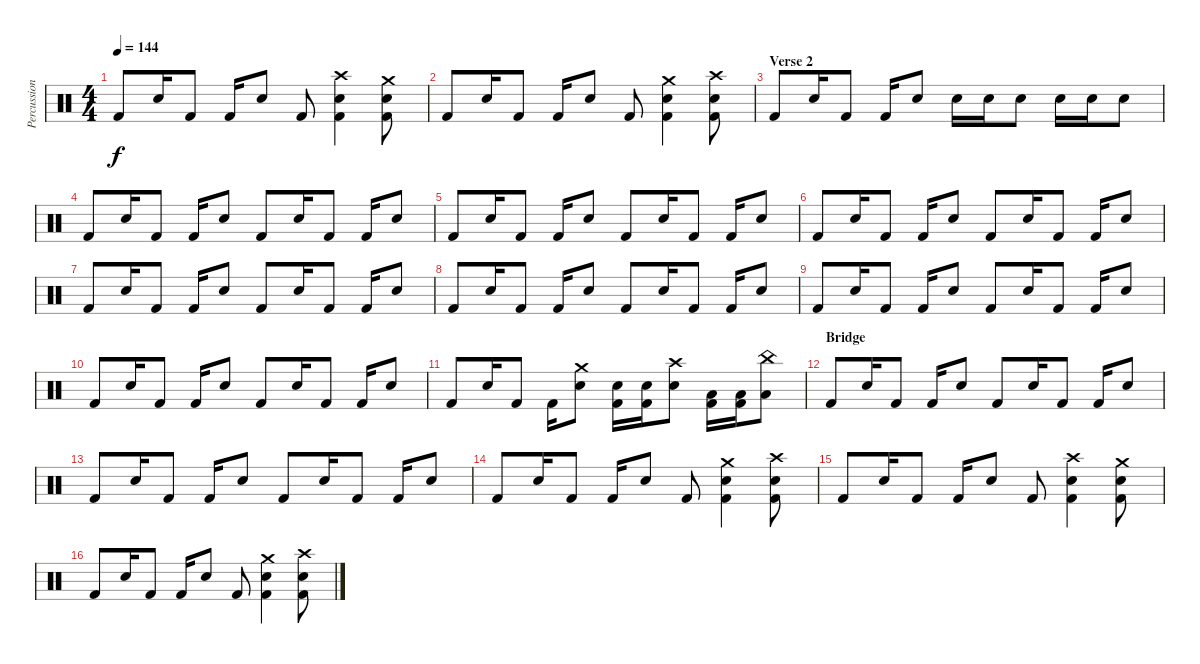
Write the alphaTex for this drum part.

\track ("Percussion" "Percussion") {instrument percussion}
\staff {score}
\articulation defaults
\ts (4 4)
\tempo 144
\clef neutral
\ks c "Kick (hit) 2".8{dy f} "Snare (hit) 2".16 "Kick (hit) 2".8 "Kick (hit) 2".16 "Snare (hit) 2".8 "Kick (hit) 2".8
("Crash high (hit)" "Snare (hit) 2" "Kick (hit) 2").4 ("Crash medium (hit)" "Snare (hit) 2" "Kick (hit) 2").8 |
"Kick (hit) 2".8 "Snare (hit) 2".16 "Kick (hit) 2".8 "Kick (hit) 2".16 "Snare (hit) 2".8 "Kick (hit) 2".8 ("Crash medium (hit)" "Snare (hit) 2" "Kick (hit) 2").4 ("Crash high (hit)" "Snare (hit) 2" "Kick (hit) 2").8 |
\section ("" "Verse 2")
"Kick (hit) 2".8 "Snare (hit) 2".16 "Kick (hit) 2".8 "Kick (hit) 2".16 "Snare (hit) 2".8 "Snare (hit) 2".16 "Snare (hit) 2".16 "Snare (hit) 2".8 "Snare (hit) 2".16 "Snare (hit) 2".16 "Snare (hit) 2".8 |
"Kick (hit) 2".8 "Snare (hit) 2".16 "Kick (hit) 2".8 "Kick (hit) 2".16 "Snare (hit) 2".8 "Kick (hit) 2".8 "Snare (hit) 2".16 "Kick (hit) 2".8 "Kick (hit) 2".16 "Snare (hit) 2".8 |
"Kick (hit) 2".8 "Snare (hit) 2".16 "Kick (hit) 2".8 "Kick (hit) 2".16 "Snare (hit) 2".8 "Kick (hit) 2".8 "Snare (hit) 2".16 "Kick (hit) 2".8 "Kick (hit) 2".16 "Snare (hit) 2".8 |
"Kick (hit) 2".8 "Snare (hit) 2".16 "Kick (hit) 2".8 "Kick (hit) 2".16 "Snare (hit) 2".8 "Kick (hit) 2".8 "Snare (hit) 2".16 "Kick (hit) 2".8 "Kick (hit) 2".16 "Snare (hit) 2".8 |
"Kick (hit) 2".8 "Snare (hit) 2".16 "Kick (hit) 2".8 "Kick (hit) 2".16 "Snare (hit) 2".8 "Kick (hit) 2".8 "Snare (hit) 2".16 "Kick (hit) 2".8 "Kick (hit) 2".16 "Snare (hit) 2".8 |
"Kick (hit) 2".8 "Snare (hit) 2".16 "Kick (hit) 2".8 "Kick (hit) 2".16 "Snare (hit) 2".8 "Kick (hit) 2".8 "Snare (hit) 2".16 "Kick (hit) 2".8 "Kick (hit) 2".16 "Snare (hit) 2".8 |
"Kick (hit) 2".8 "Snare (hit) 2".16 "Kick (hit) 2".8 "Kick (hit) 2".16 "Snare (hit) 2".8 "Kick (hit) 2".8 "Snare (hit) 2".16 "Kick (hit) 2".8 "Kick (hit) 2".16 "Snare (hit) 2".8 |
"Kick (hit) 2".8 "Snare (hit) 2".16 "Kick (hit) 2".8 "Kick (hit) 2".16 "Snare (hit) 2".8 "Kick (hit) 2".8 "Snare (hit) 2".16 "Kick (hit) 2".8 "Kick (hit) 2".16 "Snare (hit) 2".8 |
"Kick (hit) 2".8 "Snare (hit) 2".16 "Kick (hit) 2".8 "Kick (hit) 2".16 ("Crash medium (hit)" "Snare (hit) 2").8 ("Snare (hit) 2" "Kick (hit) 2").16 ("Snare (hit) 2" "Kick (hit) 2").16 ("Crash high (hit)" "Snare (hit) 2").8 ("Low Tom (hit)" "Kick (hit) 2").16 ("Low Tom (hit)" "Kick (hit) 2").16 ("China (hit)" "Low Tom (hit)").8 |
\section ("" "Bridge")
"Kick (hit) 2".8 "Snare (hit) 2".16 "Kick (hit) 2".8 "Kick (hit) 2".16 "Snare (hit) 2".8 "Kick (hit) 2".8 "Snare (hit) 2".16 "Kick (hit) 2".8 "Kick (hit) 2".16 "Snare (hit) 2".8 |
"Kick (hit) 2".8 "Snare (hit) 2".16 "Kick (hit) 2".8 "Kick (hit) 2".16 "Snare (hit) 2".8 "Kick (hit) 2".8 "Snare (hit) 2".16 "Kick (hit) 2".8 "Kick (hit) 2".16 "Snare (hit) 2".8 |
"Kick (hit) 2".8 "Snare (hit) 2".16 "Kick (hit) 2".8 "Kick (hit) 2".16 "Snare (hit) 2".8 "Kick (hit) 2".8 ("Crash medium (hit)" "Snare (hit) 2" "Kick (hit) 2").4 ("Crash high (hit)" "Snare (hit) 2" "Kick (hit) 2").8 |
"Kick (hit) 2".8 "Snare (hit) 2".16 "Kick (hit) 2".8 "Kick (hit) 2".16 "Snare (hit) 2".8 "Kick (hit) 2".8 ("Crash high (hit)" "Snare (hit) 2" "Kick (hit) 2").4 ("Crash medium (hit)" "Snare (hit) 2" "Kick (hit) 2").8 |
"Kick (hit) 2".8 "Snare (hit) 2".16 "Kick (hit) 2".8 "Kick (hit) 2".16 "Snare (hit) 2".8 "Kick (hit) 2".8 ("Crash medium (hit)" "Snare (hit) 2" "Kick (hit) 2").4 ("Crash high (hit)" "Snare (hit) 2" "Kick (hit) 2").8
